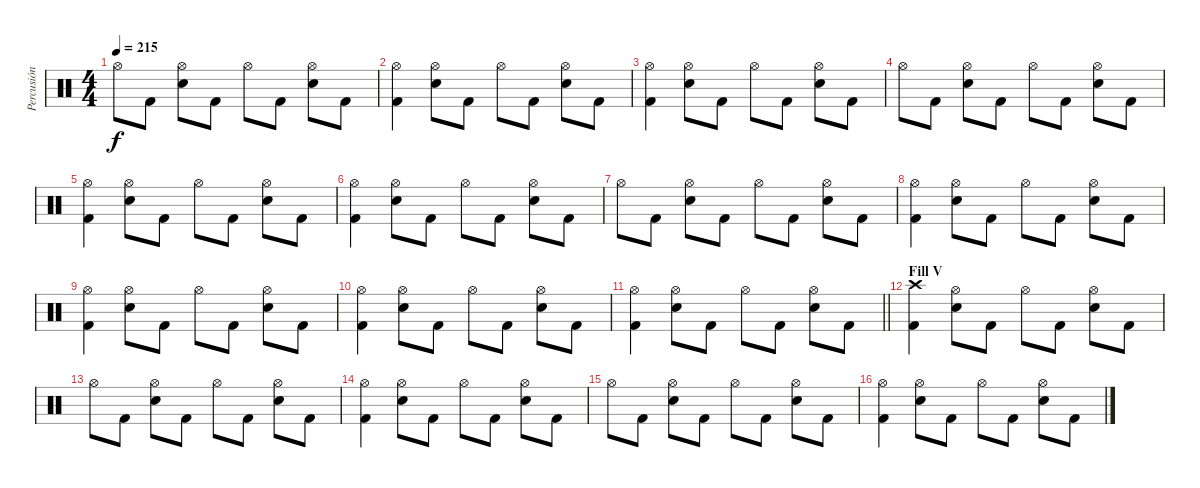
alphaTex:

\track ("Percusión" "Percusión") {instrument percussion}
\staff {score}
\articulation defaults
\ts (4 4)
\tempo 215
\clef neutral
\ks c "Hi-Hat (open)".8{dy f} "Kick (hit) 2".8
("Hi-Hat (open)" "Electric Snare (hit)").8 "Kick (hit) 2".8 "Hi-Hat (open)".8 "Kick (hit) 2".8 ("Hi-Hat (open)" "Electric Snare (hit)").8 "Kick (hit) 2".8 |
("Hi-Hat (open)" "Kick (hit) 2").4 ("Hi-Hat (open)" "Electric Snare (hit)").8 "Kick (hit) 2".8 "Hi-Hat (open)".8 "Kick (hit) 2".8 ("Hi-Hat (open)" "Electric Snare (hit)").8 "Kick (hit) 2".8 |
("Hi-Hat (open)" "Kick (hit) 2").4 ("Hi-Hat (open)" "Electric Snare (hit)").8 "Kick (hit) 2".8 "Hi-Hat (open)".8 "Kick (hit) 2".8 ("Hi-Hat (open)" "Electric Snare (hit)").8 "Kick (hit) 2".8 |
"Hi-Hat (open)".8 "Kick (hit) 2".8 ("Hi-Hat (open)" "Electric Snare (hit)").8 "Kick (hit) 2".8 "Hi-Hat (open)".8 "Kick (hit) 2".8 ("Hi-Hat (open)" "Electric Snare (hit)").8 "Kick (hit) 2".8 |
("Hi-Hat (open)" "Kick (hit) 2").4 ("Hi-Hat (open)" "Electric Snare (hit)").8 "Kick (hit) 2".8 "Hi-Hat (open)".8 "Kick (hit) 2".8 ("Hi-Hat (open)" "Electric Snare (hit)").8 "Kick (hit) 2".8 |
("Hi-Hat (open)" "Kick (hit) 2").4 ("Hi-Hat (open)" "Electric Snare (hit)").8 "Kick (hit) 2".8 "Hi-Hat (open)".8 "Kick (hit) 2".8 ("Hi-Hat (open)" "Electric Snare (hit)").8 "Kick (hit) 2".8 |
"Hi-Hat (open)".8 "Kick (hit) 2".8 ("Hi-Hat (open)" "Electric Snare (hit)").8 "Kick (hit) 2".8 "Hi-Hat (open)".8 "Kick (hit) 2".8 ("Hi-Hat (open)" "Electric Snare (hit)").8 "Kick (hit) 2".8 |
("Hi-Hat (open)" "Kick (hit) 2").4 ("Hi-Hat (open)" "Electric Snare (hit)").8 "Kick (hit) 2".8 "Hi-Hat (open)".8 "Kick (hit) 2".8 ("Hi-Hat (open)" "Electric Snare (hit)").8 "Kick (hit) 2".8 |
("Hi-Hat (open)" "Kick (hit) 2").4 ("Hi-Hat (open)" "Electric Snare (hit)").8 "Kick (hit) 2".8 "Hi-Hat (open)".8 "Kick (hit) 2".8 ("Hi-Hat (open)" "Electric Snare (hit)").8 "Kick (hit) 2".8 |
("Hi-Hat (open)" "Kick (hit) 2").4 ("Hi-Hat (open)" "Electric Snare (hit)").8 "Kick (hit) 2".8 "Hi-Hat (open)".8 "Kick (hit) 2".8 ("Hi-Hat (open)" "Electric Snare (hit)").8 "Kick (hit) 2".8 |
\barLineRight lightlight
("Hi-Hat (open)" "Kick (hit) 2").4 ("Hi-Hat (open)" "Electric Snare (hit)").8 "Kick (hit) 2".8 "Hi-Hat (open)".8 "Kick (hit) 2".8 ("Hi-Hat (open)" "Electric Snare (hit)").8 "Kick (hit) 2".8 |
\section ("" "Fill V")
("Crash high (hit)" "Kick (hit) 2").4 ("Hi-Hat (open)" "Electric Snare (hit)").8 "Kick (hit) 2".8 "Hi-Hat (open)".8 "Kick (hit) 2".8 ("Hi-Hat (open)" "Electric Snare (hit)").8 "Kick (hit) 2".8 |
"Hi-Hat (open)".8 "Kick (hit) 2".8 ("Hi-Hat (open)" "Electric Snare (hit)").8 "Kick (hit) 2".8 "Hi-Hat (open)".8 "Kick (hit) 2".8 ("Hi-Hat (open)" "Electric Snare (hit)").8 "Kick (hit) 2".8 |
("Hi-Hat (open)" "Kick (hit) 2").4 ("Hi-Hat (open)" "Electric Snare (hit)").8 "Kick (hit) 2".8 "Hi-Hat (open)".8 "Kick (hit) 2".8 ("Hi-Hat (open)" "Electric Snare (hit)").8 "Kick (hit) 2".8 |
"Hi-Hat (open)".8 "Kick (hit) 2".8 ("Hi-Hat (open)" "Electric Snare (hit)").8 "Kick (hit) 2".8 "Hi-Hat (open)".8 "Kick (hit) 2".8 ("Hi-Hat (open)" "Electric Snare (hit)").8 "Kick (hit) 2".8 |
("Hi-Hat (open)" "Kick (hit) 2").4 ("Hi-Hat (open)" "Electric Snare (hit)").8 "Kick (hit) 2".8 "Hi-Hat (open)".8 "Kick (hit) 2".8 ("Hi-Hat (open)" "Electric Snare (hit)").8 "Kick (hit) 2".8
